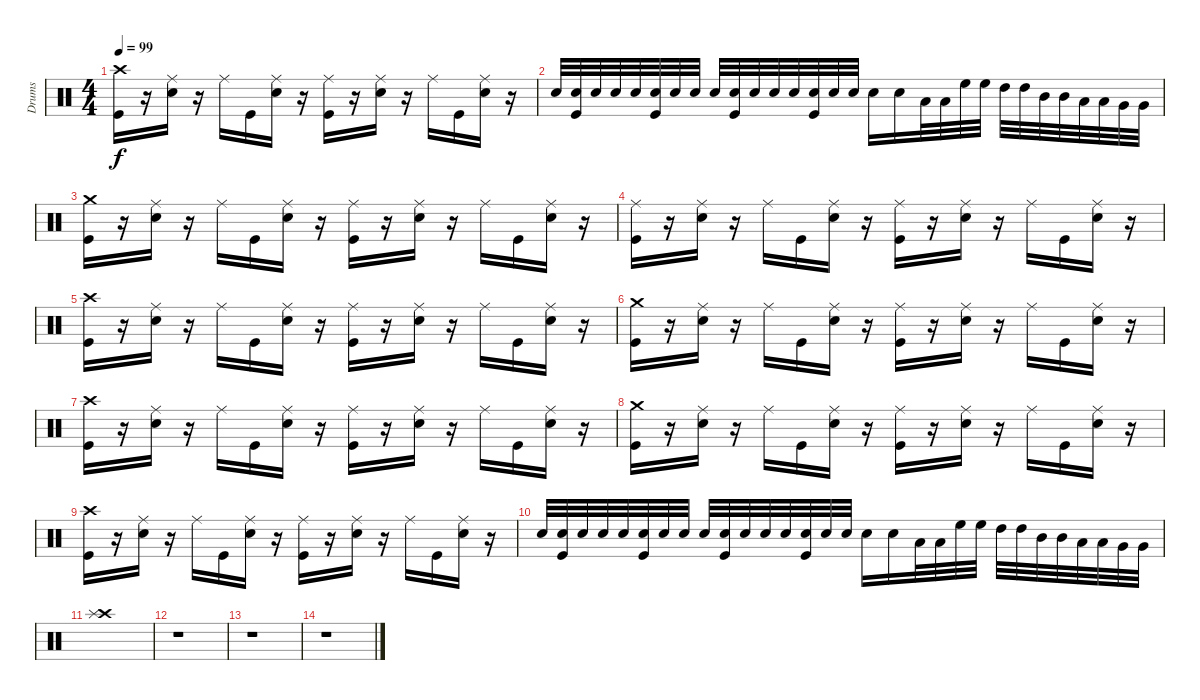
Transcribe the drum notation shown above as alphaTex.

\track ("Drums" "Drums") {instrument percussion}
\staff {score}
\articulation defaults
\ts (4 4)
\tempo 99
\clef neutral
\ks c
("Crash high (hit)" "Kick (hit)").16{dy f} r.16 ("Ride (middle)" "Electric Snare (hit)").16 r.16 "Ride (middle)".16 "Kick (hit)".16 ("Ride (middle)" "Electric Snare (hit)").16 r.16 ("Ride (middle)" "Kick (hit)").16 r.16 ("Ride (middle)" "Electric Snare (hit)").16 r.16 "Ride (middle)".16 "Kick (hit)".16 ("Ride (middle)" "Electric Snare (hit)").16 r.16 |
"Electric Snare (hit)".32 ("Electric Snare (hit)" "Kick (hit)").32 "Electric Snare (hit)".32 "Electric Snare (hit)".32 "Electric Snare (hit)".32 ("Electric Snare (hit)" "Kick (hit)").32 "Electric Snare (hit)".32 "Electric Snare (hit)".32 "Electric Snare (hit)".32 ("Electric Snare (hit)" "Kick (hit)").32 "Electric Snare (hit)".32 "Electric Snare (hit)".32 "Electric Snare (hit)".32 ("Electric Snare (hit)" "Kick (hit)").32 "Electric Snare (hit)".32 "Electric Snare (hit)".32 "Electric Snare (hit)".16 "Electric Snare (hit)".16 "Low Floor Tom (hit)".32 "Low Floor Tom (hit)".32 "High Floor Tom (hit)".32 "High Floor Tom (hit)".32 "High Tom (hit)".32 "High Tom (hit)".32 "Mid Tom (hit)".32 "Mid Tom (hit)".32 "Low Tom (hit)".32 "Low Tom (hit)".32 "Very Low Tom (hit)".32 "Very Low Tom (hit)".32 |
("Crash medium (hit)" "Kick (hit)").16 r.16 ("Ride (middle)" "Electric Snare (hit)").16 r.16 "Ride (middle)".16 "Kick (hit)".16 ("Ride (middle)" "Electric Snare (hit)").16 r.16 ("Ride (middle)" "Kick (hit)").16 r.16 ("Ride (middle)" "Electric Snare (hit)").16 r.16 "Ride (middle)".16 "Kick (hit)".16 ("Ride (middle)" "Electric Snare (hit)").16 r.16 |
("Ride (middle)" "Kick (hit)").16 r.16 ("Ride (middle)" "Electric Snare (hit)").16 r.16 "Ride (middle)".16 "Kick (hit)".16 ("Ride (middle)" "Electric Snare (hit)").16 r.16 ("Ride (middle)" "Kick (hit)").16 r.16 ("Ride (middle)" "Electric Snare (hit)").16 r.16 "Ride (middle)".16 "Kick (hit)".16 ("Ride (middle)" "Electric Snare (hit)").16 r.16 |
("Crash high (hit)" "Kick (hit)").16 r.16 ("Ride (middle)" "Electric Snare (hit)").16 r.16 "Ride (middle)".16 "Kick (hit)".16 ("Ride (middle)" "Electric Snare (hit)").16 r.16 ("Ride (middle)" "Kick (hit)").16 r.16 ("Ride (middle)" "Electric Snare (hit)").16 r.16 "Ride (middle)".16 "Kick (hit)".16 ("Ride (middle)" "Electric Snare (hit)").16 r.16 |
("Crash medium (hit)" "Kick (hit)").16 r.16 ("Ride (middle)" "Electric Snare (hit)").16 r.16 "Ride (middle)".16 "Kick (hit)".16 ("Ride (middle)" "Electric Snare (hit)").16 r.16 ("Ride (middle)" "Kick (hit)").16 r.16 ("Ride (middle)" "Electric Snare (hit)").16 r.16 "Ride (middle)".16 "Kick (hit)".16 ("Ride (middle)" "Electric Snare (hit)").16 r.16 |
("Crash high (hit)" "Kick (hit)").16 r.16 ("Ride (middle)" "Electric Snare (hit)").16 r.16 "Ride (middle)".16 "Kick (hit)".16 ("Ride (middle)" "Electric Snare (hit)").16 r.16 ("Ride (middle)" "Kick (hit)").16 r.16 ("Ride (middle)" "Electric Snare (hit)").16 r.16 "Ride (middle)".16 "Kick (hit)".16 ("Ride (middle)" "Electric Snare (hit)").16 r.16 |
("Crash medium (hit)" "Kick (hit)").16 r.16 ("Ride (middle)" "Electric Snare (hit)").16 r.16 "Ride (middle)".16 "Kick (hit)".16 ("Ride (middle)" "Electric Snare (hit)").16 r.16 ("Ride (middle)" "Kick (hit)").16 r.16 ("Ride (middle)" "Electric Snare (hit)").16 r.16 "Ride (middle)".16 "Kick (hit)".16 ("Ride (middle)" "Electric Snare (hit)").16 r.16 |
("Crash high (hit)" "Kick (hit)").16 r.16 ("Ride (middle)" "Electric Snare (hit)").16 r.16 "Ride (middle)".16 "Kick (hit)".16 ("Ride (middle)" "Electric Snare (hit)").16 r.16 ("Ride (middle)" "Kick (hit)").16 r.16 ("Ride (middle)" "Electric Snare (hit)").16 r.16 "Ride (middle)".16 "Kick (hit)".16 ("Ride (middle)" "Electric Snare (hit)").16 r.16 |
"Electric Snare (hit)".32 ("Electric Snare (hit)" "Kick (hit)").32 "Electric Snare (hit)".32 "Electric Snare (hit)".32 "Electric Snare (hit)".32 ("Electric Snare (hit)" "Kick (hit)").32 "Electric Snare (hit)".32 "Electric Snare (hit)".32 "Electric Snare (hit)".32 ("Electric Snare (hit)" "Kick (hit)").32 "Electric Snare (hit)".32 "Electric Snare (hit)".32 "Electric Snare (hit)".32 ("Electric Snare (hit)" "Kick (hit)").32 "Electric Snare (hit)".32 "Electric Snare (hit)".32 "Electric Snare (hit)".16 "Electric Snare (hit)".16 "Low Floor Tom (hit)".32 "Low Floor Tom (hit)".32 "High Floor Tom (hit)".32 "High Floor Tom (hit)".32 "High Tom (hit)".32 "High Tom (hit)".32 "Mid Tom (hit)".32 "Mid Tom (hit)".32 "Low Tom (hit)".32 "Low Tom (hit)".32 "Very Low Tom (hit)".32 "Very Low Tom (hit)".32 |
("Crash high (hit)" "Splash (hit)").1 |
r.1 |
r.1 |
r.1
